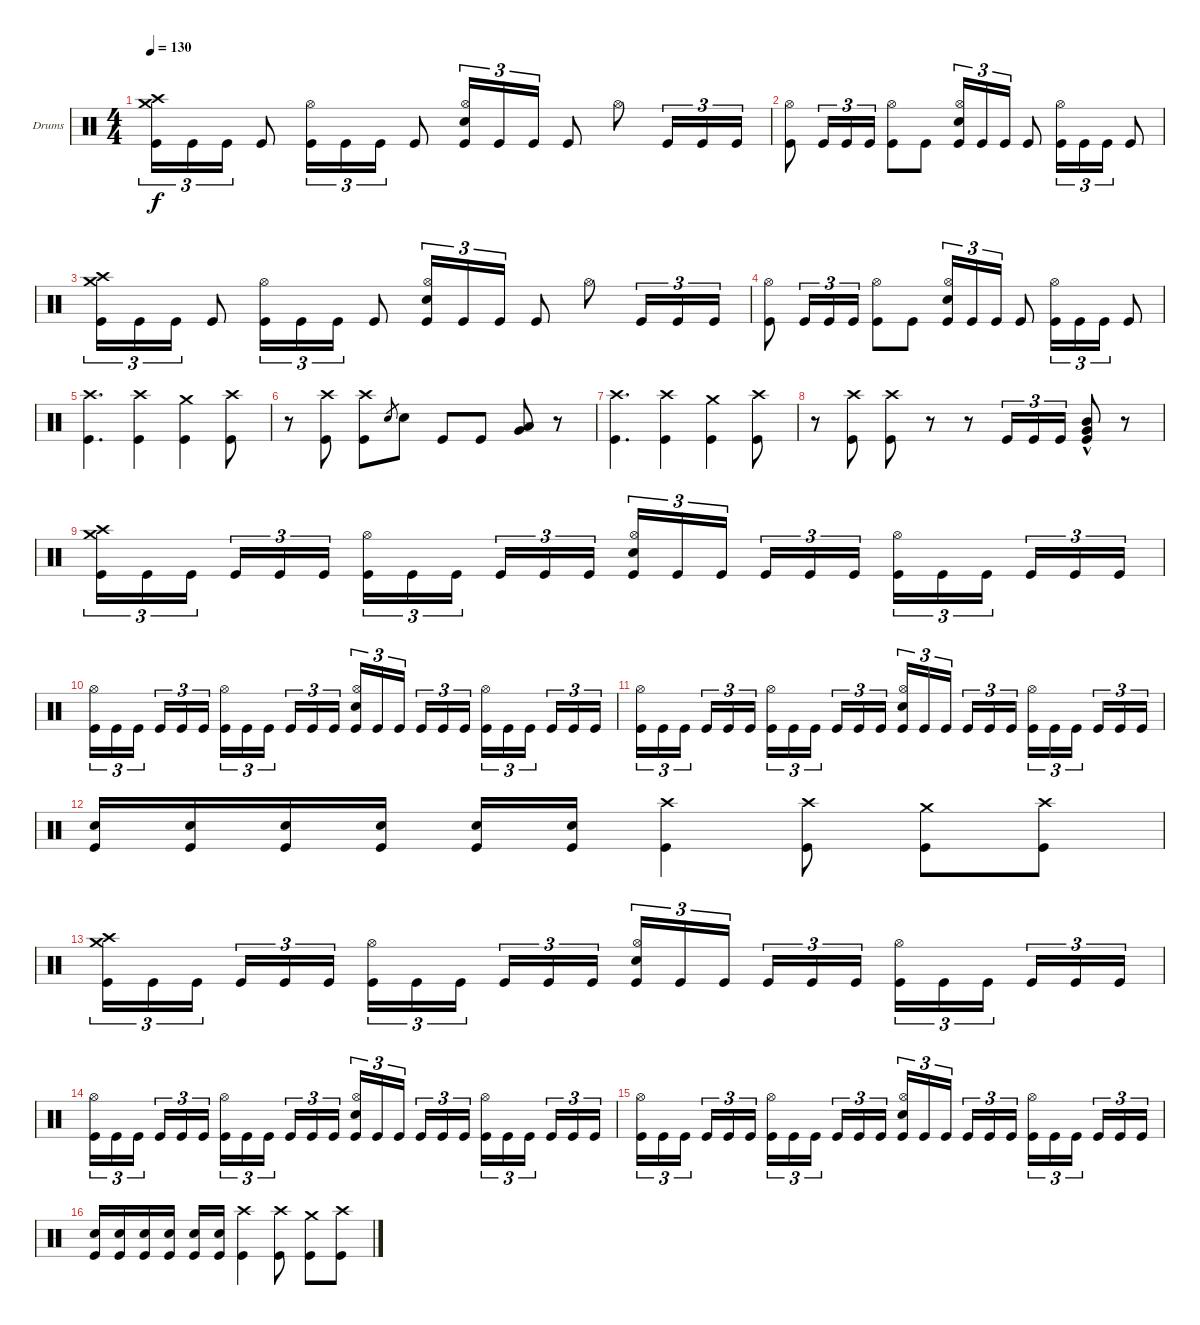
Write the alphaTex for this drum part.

\bracketExtendMode groupsimilarinstruments
\firstSystemTrackNameOrientation horizontal
\otherSystemsTrackNameOrientation horizontal
\track ("Drumkit" "Drums") {instrument percussion}
\staff {score}
\articulation defaults
\ts (4 4)
\tempo 130
\clef neutral
\ks c
("Kick (hit)" "Crash high (hit)" "Crash medium (hit)").16{tu (3 2) dy f} "Kick (hit)".16{tu (3 2)} "Kick (hit)".16{tu (3 2)} "Kick (hit)".8 ("Kick (hit)" "Hi-Hat (open)").16{tu (3 2)} "Kick (hit)".16{tu (3 2)} "Kick (hit)".16{tu (3 2)} "Kick (hit)".8 ("Kick (hit)" "Hi-Hat (open)" "Snare (hit) 2").16{tu (3 2)} "Kick (hit)".16{tu (3 2)} "Kick (hit)".16{tu (3 2)} "Kick (hit)".8 "Hi-Hat (open)".8 "Kick (hit)".16{tu (3 2)} "Kick (hit)".16{tu (3 2)} "Kick (hit)".16{tu (3 2)} |
("Kick (hit)" "Hi-Hat (open)").8 "Kick (hit)".16{tu (3 2)} "Kick (hit)".16{tu (3 2)} "Kick (hit)".16{tu (3 2)} ("Kick (hit)" "Hi-Hat (open)").8 "Kick (hit)".8 ("Hi-Hat (open)" "Kick (hit)" "Snare (hit) 2").16{tu (3 2)} "Kick (hit)".16{tu (3 2)} "Kick (hit)".16{tu (3 2)} "Kick (hit)".8 ("Kick (hit)" "Hi-Hat (open)").16{tu (3 2)} "Kick (hit)".16{tu (3 2)} "Kick (hit)".16{tu (3 2)} "Kick (hit)".8 |
("Kick (hit)" "Crash high (hit)" "Crash medium (hit)").16{tu (3 2)} "Kick (hit)".16{tu (3 2)} "Kick (hit)".16{tu (3 2)} "Kick (hit)".8 ("Kick (hit)" "Hi-Hat (open)").16{tu (3 2)} "Kick (hit)".16{tu (3 2)} "Kick (hit)".16{tu (3 2)} "Kick (hit)".8 ("Kick (hit)" "Hi-Hat (open)" "Snare (hit) 2").16{tu (3 2)} "Kick (hit)".16{tu (3 2)} "Kick (hit)".16{tu (3 2)} "Kick (hit)".8 "Hi-Hat (open)".8 "Kick (hit)".16{tu (3 2)} "Kick (hit)".16{tu (3 2)} "Kick (hit)".16{tu (3 2)} |
("Kick (hit)" "Hi-Hat (open)").8 "Kick (hit)".16{tu (3 2)} "Kick (hit)".16{tu (3 2)} "Kick (hit)".16{tu (3 2)} ("Kick (hit)" "Hi-Hat (open)").8 "Kick (hit)".8 ("Hi-Hat (open)" "Kick (hit)" "Snare (hit) 2").16{tu (3 2)} "Kick (hit)".16{tu (3 2)} "Kick (hit)".16{tu (3 2)} "Kick (hit)".8 ("Kick (hit)" "Hi-Hat (open)").16{tu (3 2)} "Kick (hit)".16{tu (3 2)} "Kick (hit)".16{tu (3 2)} "Kick (hit)".8 |
("Kick (hit)" "Crash high (hit)").4{d} ("Kick (hit)" "Crash high (hit)").4 ("Kick (hit)" "Crash medium (hit)").4 ("Crash high (hit)" "Kick (hit)").8 |
r.8 ("Kick (hit)" "Crash high (hit)").8 ("Kick (hit)" "Crash high (hit)").8 "Snare (hit) 2".8{gr} "Snare (hit) 2".8 "Kick (hit)".8 "Kick (hit)".8 ("Low Tom (hit)" "Very Low Tom (hit)").8 r.8 |
("Kick (hit)" "Crash high (hit)").4{d} ("Kick (hit)" "Crash high (hit)").4 ("Kick (hit)" "Crash medium (hit)").4 ("Crash high (hit)" "Kick (hit)").8 |
r.8 ("Kick (hit)" "Crash high (hit)").8 ("Kick (hit)" "Crash high (hit)").8 r.8 r.8 "Kick (hit)".16{tu (3 2)} "Kick (hit)".16{tu (3 2)} "Kick (hit)".16{tu (3 2)} ("Mid Tom (hit)"{hac} "Very Low Tom (hit)"{hac} "Kick (hit)").8 r.8 |
("Kick (hit)" "Crash high (hit)" "Crash medium (hit)").16{tu (3 2)} "Kick (hit)".16{tu (3 2)} "Kick (hit)".16{tu (3 2)} "Kick (hit)".16{tu (3 2)} "Kick (hit)".16{tu (3 2)} "Kick (hit)".16{tu (3 2)} ("Kick (hit)" "Hi-Hat (open)").16{tu (3 2)} "Kick (hit)".16{tu (3 2)} "Kick (hit)".16{tu (3 2)} "Kick (hit)".16{tu (3 2)} "Kick (hit)".16{tu (3 2)} "Kick (hit)".16{tu (3 2)} ("Kick (hit)" "Hi-Hat (open)" "Snare (hit) 2").16{tu (3 2)} "Kick (hit)".16{tu (3 2)} "Kick (hit)".16{tu (3 2)} "Kick (hit)".16{tu (3 2)} "Kick (hit)".16{tu (3 2)} "Kick (hit)".16{tu (3 2)} ("Kick (hit)" "Hi-Hat (open)").16{tu (3 2)} "Kick (hit)".16{tu (3 2)} "Kick (hit)".16{tu (3 2)} "Kick (hit)".16{tu (3 2)} "Kick (hit)".16{tu (3 2)} "Kick (hit)".16{tu (3 2)} |
("Kick (hit)" "Hi-Hat (open)").16{tu (3 2)} "Kick (hit)".16{tu (3 2)} "Kick (hit)".16{tu (3 2)} "Kick (hit)".16{tu (3 2)} "Kick (hit)".16{tu (3 2)} "Kick (hit)".16{tu (3 2)} ("Kick (hit)" "Hi-Hat (open)").16{tu (3 2)} "Kick (hit)".16{tu (3 2)} "Kick (hit)".16{tu (3 2)} "Kick (hit)".16{tu (3 2)} "Kick (hit)".16{tu (3 2)} "Kick (hit)".16{tu (3 2)} ("Kick (hit)" "Hi-Hat (open)" "Snare (hit) 2").16{tu (3 2)} "Kick (hit)".16{tu (3 2)} "Kick (hit)".16{tu (3 2)} "Kick (hit)".16{tu (3 2)} "Kick (hit)".16{tu (3 2)} "Kick (hit)".16{tu (3 2)} ("Kick (hit)" "Hi-Hat (open)").16{tu (3 2)} "Kick (hit)".16{tu (3 2)} "Kick (hit)".16{tu (3 2)} "Kick (hit)".16{tu (3 2)} "Kick (hit)".16{tu (3 2)} "Kick (hit)".16{tu (3 2)} |
("Kick (hit)" "Hi-Hat (open)").16{tu (3 2)} "Kick (hit)".16{tu (3 2)} "Kick (hit)".16{tu (3 2)} "Kick (hit)".16{tu (3 2)} "Kick (hit)".16{tu (3 2)} "Kick (hit)".16{tu (3 2)} ("Kick (hit)" "Hi-Hat (open)").16{tu (3 2)} "Kick (hit)".16{tu (3 2)} "Kick (hit)".16{tu (3 2)} "Kick (hit)".16{tu (3 2)} "Kick (hit)".16{tu (3 2)} "Kick (hit)".16{tu (3 2)} ("Kick (hit)" "Hi-Hat (open)" "Snare (hit) 2").16{tu (3 2)} "Kick (hit)".16{tu (3 2)} "Kick (hit)".16{tu (3 2)} "Kick (hit)".16{tu (3 2)} "Kick (hit)".16{tu (3 2)} "Kick (hit)".16{tu (3 2)} ("Kick (hit)" "Hi-Hat (open)").16{tu (3 2)} "Kick (hit)".16{tu (3 2)} "Kick (hit)".16{tu (3 2)} "Kick (hit)".16{tu (3 2)} "Kick (hit)".16{tu (3 2)} "Kick (hit)".16{tu (3 2)} |
("Snare (hit) 2" "Kick (hit)").16 ("Snare (hit) 2" "Kick (hit)").16 ("Snare (hit) 2" "Kick (hit)").16 ("Snare (hit) 2" "Kick (hit)").16 ("Snare (hit) 2" "Kick (hit)").16 ("Snare (hit) 2" "Kick (hit)").16 ("Kick (hit)" "Crash high (hit)").4 ("Kick (hit)" "Crash high (hit)").8 ("Crash medium (hit)" "Kick (hit)").8 ("Crash high (hit)" "Kick (hit)").8 |
("Kick (hit)" "Crash high (hit)" "Crash medium (hit)").16{tu (3 2)} "Kick (hit)".16{tu (3 2)} "Kick (hit)".16{tu (3 2)} "Kick (hit)".16{tu (3 2)} "Kick (hit)".16{tu (3 2)} "Kick (hit)".16{tu (3 2)} ("Kick (hit)" "Hi-Hat (open)").16{tu (3 2)} "Kick (hit)".16{tu (3 2)} "Kick (hit)".16{tu (3 2)} "Kick (hit)".16{tu (3 2)} "Kick (hit)".16{tu (3 2)} "Kick (hit)".16{tu (3 2)} ("Kick (hit)" "Hi-Hat (open)" "Snare (hit) 2").16{tu (3 2)} "Kick (hit)".16{tu (3 2)} "Kick (hit)".16{tu (3 2)} "Kick (hit)".16{tu (3 2)} "Kick (hit)".16{tu (3 2)} "Kick (hit)".16{tu (3 2)} ("Kick (hit)" "Hi-Hat (open)").16{tu (3 2)} "Kick (hit)".16{tu (3 2)} "Kick (hit)".16{tu (3 2)} "Kick (hit)".16{tu (3 2)} "Kick (hit)".16{tu (3 2)} "Kick (hit)".16{tu (3 2)} |
("Kick (hit)" "Hi-Hat (open)").16{tu (3 2)} "Kick (hit)".16{tu (3 2)} "Kick (hit)".16{tu (3 2)} "Kick (hit)".16{tu (3 2)} "Kick (hit)".16{tu (3 2)} "Kick (hit)".16{tu (3 2)} ("Kick (hit)" "Hi-Hat (open)").16{tu (3 2)} "Kick (hit)".16{tu (3 2)} "Kick (hit)".16{tu (3 2)} "Kick (hit)".16{tu (3 2)} "Kick (hit)".16{tu (3 2)} "Kick (hit)".16{tu (3 2)} ("Kick (hit)" "Hi-Hat (open)" "Snare (hit) 2").16{tu (3 2)} "Kick (hit)".16{tu (3 2)} "Kick (hit)".16{tu (3 2)} "Kick (hit)".16{tu (3 2)} "Kick (hit)".16{tu (3 2)} "Kick (hit)".16{tu (3 2)} ("Kick (hit)" "Hi-Hat (open)").16{tu (3 2)} "Kick (hit)".16{tu (3 2)} "Kick (hit)".16{tu (3 2)} "Kick (hit)".16{tu (3 2)} "Kick (hit)".16{tu (3 2)} "Kick (hit)".16{tu (3 2)} |
("Kick (hit)" "Hi-Hat (open)").16{tu (3 2)} "Kick (hit)".16{tu (3 2)} "Kick (hit)".16{tu (3 2)} "Kick (hit)".16{tu (3 2)} "Kick (hit)".16{tu (3 2)} "Kick (hit)".16{tu (3 2)} ("Kick (hit)" "Hi-Hat (open)").16{tu (3 2)} "Kick (hit)".16{tu (3 2)} "Kick (hit)".16{tu (3 2)} "Kick (hit)".16{tu (3 2)} "Kick (hit)".16{tu (3 2)} "Kick (hit)".16{tu (3 2)} ("Kick (hit)" "Hi-Hat (open)" "Snare (hit) 2").16{tu (3 2)} "Kick (hit)".16{tu (3 2)} "Kick (hit)".16{tu (3 2)} "Kick (hit)".16{tu (3 2)} "Kick (hit)".16{tu (3 2)} "Kick (hit)".16{tu (3 2)} ("Kick (hit)" "Hi-Hat (open)").16{tu (3 2)} "Kick (hit)".16{tu (3 2)} "Kick (hit)".16{tu (3 2)} "Kick (hit)".16{tu (3 2)} "Kick (hit)".16{tu (3 2)} "Kick (hit)".16{tu (3 2)} |
("Snare (hit) 2" "Kick (hit)").16 ("Snare (hit) 2" "Kick (hit)").16 ("Snare (hit) 2" "Kick (hit)").16 ("Snare (hit) 2" "Kick (hit)").16 ("Snare (hit) 2" "Kick (hit)").16 ("Snare (hit) 2" "Kick (hit)").16 ("Kick (hit)" "Crash high (hit)").4 ("Kick (hit)" "Crash high (hit)").8 ("Crash medium (hit)" "Kick (hit)").8 ("Crash high (hit)" "Kick (hit)").8
